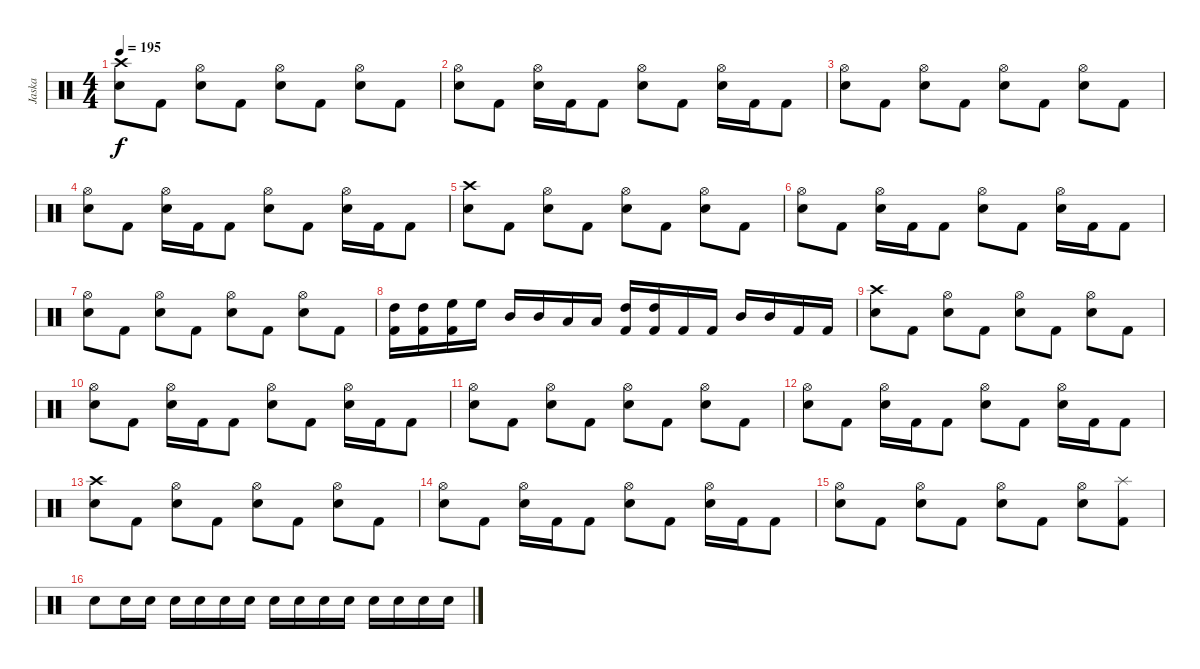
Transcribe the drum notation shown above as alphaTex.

\track ("Jaska" "Jaska") {instrument percussion}
\staff {score}
\articulation defaults
\ts (4 4)
\tempo 195
\clef neutral
\ks c
("Crash high (hit)" "Electric Snare (hit)").8{dy f} "Kick (hit) 2".8 ("Hi-Hat (open)" "Electric Snare (hit)").8 "Kick (hit) 2".8 ("Hi-Hat (open)" "Electric Snare (hit)").8 "Kick (hit) 2".8 ("Hi-Hat (open)" "Electric Snare (hit)").8 "Kick (hit) 2".8 |
("Hi-Hat (open)" "Electric Snare (hit)").8 "Kick (hit) 2".8 ("Hi-Hat (open)" "Electric Snare (hit)").16 "Kick (hit) 2".16 "Kick (hit) 2".8 ("Hi-Hat (open)" "Electric Snare (hit)").8 "Kick (hit) 2".8 ("Hi-Hat (open)" "Electric Snare (hit)").16 "Kick (hit) 2".16 "Kick (hit) 2".8 |
("Hi-Hat (open)" "Electric Snare (hit)").8 "Kick (hit) 2".8 ("Hi-Hat (open)" "Electric Snare (hit)").8 "Kick (hit) 2".8 ("Hi-Hat (open)" "Electric Snare (hit)").8 "Kick (hit) 2".8 ("Hi-Hat (open)" "Electric Snare (hit)").8 "Kick (hit) 2".8 |
("Hi-Hat (open)" "Electric Snare (hit)").8 "Kick (hit) 2".8 ("Hi-Hat (open)" "Electric Snare (hit)").16 "Kick (hit) 2".16 "Kick (hit) 2".8 ("Hi-Hat (open)" "Electric Snare (hit)").8 "Kick (hit) 2".8 ("Hi-Hat (open)" "Electric Snare (hit)").16 "Kick (hit) 2".16 "Kick (hit) 2".8 |
("Crash high (hit)" "Electric Snare (hit)").8 "Kick (hit) 2".8 ("Hi-Hat (open)" "Electric Snare (hit)").8 "Kick (hit) 2".8 ("Hi-Hat (open)" "Electric Snare (hit)").8 "Kick (hit) 2".8 ("Hi-Hat (open)" "Electric Snare (hit)").8 "Kick (hit) 2".8 |
("Hi-Hat (open)" "Electric Snare (hit)").8 "Kick (hit) 2".8 ("Hi-Hat (open)" "Electric Snare (hit)").16 "Kick (hit) 2".16 "Kick (hit) 2".8 ("Hi-Hat (open)" "Electric Snare (hit)").8 "Kick (hit) 2".8 ("Hi-Hat (open)" "Electric Snare (hit)").16 "Kick (hit) 2".16 "Kick (hit) 2".8 |
("Hi-Hat (open)" "Electric Snare (hit)").8 "Kick (hit) 2".8 ("Hi-Hat (open)" "Electric Snare (hit)").8 "Kick (hit) 2".8 ("Hi-Hat (open)" "Electric Snare (hit)").8 "Kick (hit) 2".8 ("Hi-Hat (open)" "Electric Snare (hit)").8 "Kick (hit) 2".8 |
("High Tom (hit)" "Kick (hit) 2").16 ("High Tom (hit)" "Kick (hit) 2").16 ("High Floor Tom (hit)" "Kick (hit) 2").16 "High Floor Tom (hit)".16 "Mid Tom (hit)".16 "Mid Tom (hit)".16 "Low Tom (hit)".16 "Low Tom (hit)".16 ("High Tom (hit)" "Kick (hit) 2").16 ("High Tom (hit)" "Kick (hit) 2").16 "Kick (hit) 2".16 "Kick (hit) 2".16 "Mid Tom (hit)".16 "Mid Tom (hit)".16 "Kick (hit) 2".16 "Kick (hit) 2".16 |
("Crash high (hit)" "Electric Snare (hit)").8 "Kick (hit) 2".8 ("Hi-Hat (open)" "Electric Snare (hit)").8 "Kick (hit) 2".8 ("Hi-Hat (open)" "Electric Snare (hit)").8 "Kick (hit) 2".8 ("Hi-Hat (open)" "Electric Snare (hit)").8 "Kick (hit) 2".8 |
("Hi-Hat (open)" "Electric Snare (hit)").8 "Kick (hit) 2".8 ("Hi-Hat (open)" "Electric Snare (hit)").16 "Kick (hit) 2".16 "Kick (hit) 2".8 ("Hi-Hat (open)" "Electric Snare (hit)").8 "Kick (hit) 2".8 ("Hi-Hat (open)" "Electric Snare (hit)").16 "Kick (hit) 2".16 "Kick (hit) 2".8 |
("Hi-Hat (open)" "Electric Snare (hit)").8 "Kick (hit) 2".8 ("Hi-Hat (open)" "Electric Snare (hit)").8 "Kick (hit) 2".8 ("Hi-Hat (open)" "Electric Snare (hit)").8 "Kick (hit) 2".8 ("Hi-Hat (open)" "Electric Snare (hit)").8 "Kick (hit) 2".8 |
("Hi-Hat (open)" "Electric Snare (hit)").8 "Kick (hit) 2".8 ("Hi-Hat (open)" "Electric Snare (hit)").16 "Kick (hit) 2".16 "Kick (hit) 2".8 ("Hi-Hat (open)" "Electric Snare (hit)").8 "Kick (hit) 2".8 ("Hi-Hat (open)" "Electric Snare (hit)").16 "Kick (hit) 2".16 "Kick (hit) 2".8 |
("Crash high (hit)" "Electric Snare (hit)").8 "Kick (hit) 2".8 ("Hi-Hat (open)" "Electric Snare (hit)").8 "Kick (hit) 2".8 ("Hi-Hat (open)" "Electric Snare (hit)").8 "Kick (hit) 2".8 ("Hi-Hat (open)" "Electric Snare (hit)").8 "Kick (hit) 2".8 |
("Hi-Hat (open)" "Electric Snare (hit)").8 "Kick (hit) 2".8 ("Hi-Hat (open)" "Electric Snare (hit)").16 "Kick (hit) 2".16 "Kick (hit) 2".8 ("Hi-Hat (open)" "Electric Snare (hit)").8 "Kick (hit) 2".8 ("Hi-Hat (open)" "Electric Snare (hit)").16 "Kick (hit) 2".16 "Kick (hit) 2".8 |
("Hi-Hat (open)" "Electric Snare (hit)").8 "Kick (hit) 2".8 ("Hi-Hat (open)" "Electric Snare (hit)").8 "Kick (hit) 2".8 ("Hi-Hat (open)" "Electric Snare (hit)").8 "Kick (hit) 2".8 ("Hi-Hat (open)" "Electric Snare (hit)").8 ("Splash (hit)" "Kick (hit) 2").8 |
"Electric Snare (hit)".8 "Electric Snare (hit)".16 "Electric Snare (hit)".16 "Electric Snare (hit)".16 "Electric Snare (hit)".16 "Electric Snare (hit)".16 "Electric Snare (hit)".16 "Electric Snare (hit)".16 "Electric Snare (hit)".16 "Electric Snare (hit)".16 "Electric Snare (hit)".16 "Electric Snare (hit)".16 "Electric Snare (hit)".16 "Electric Snare (hit)".16 "Electric Snare (hit)".16
